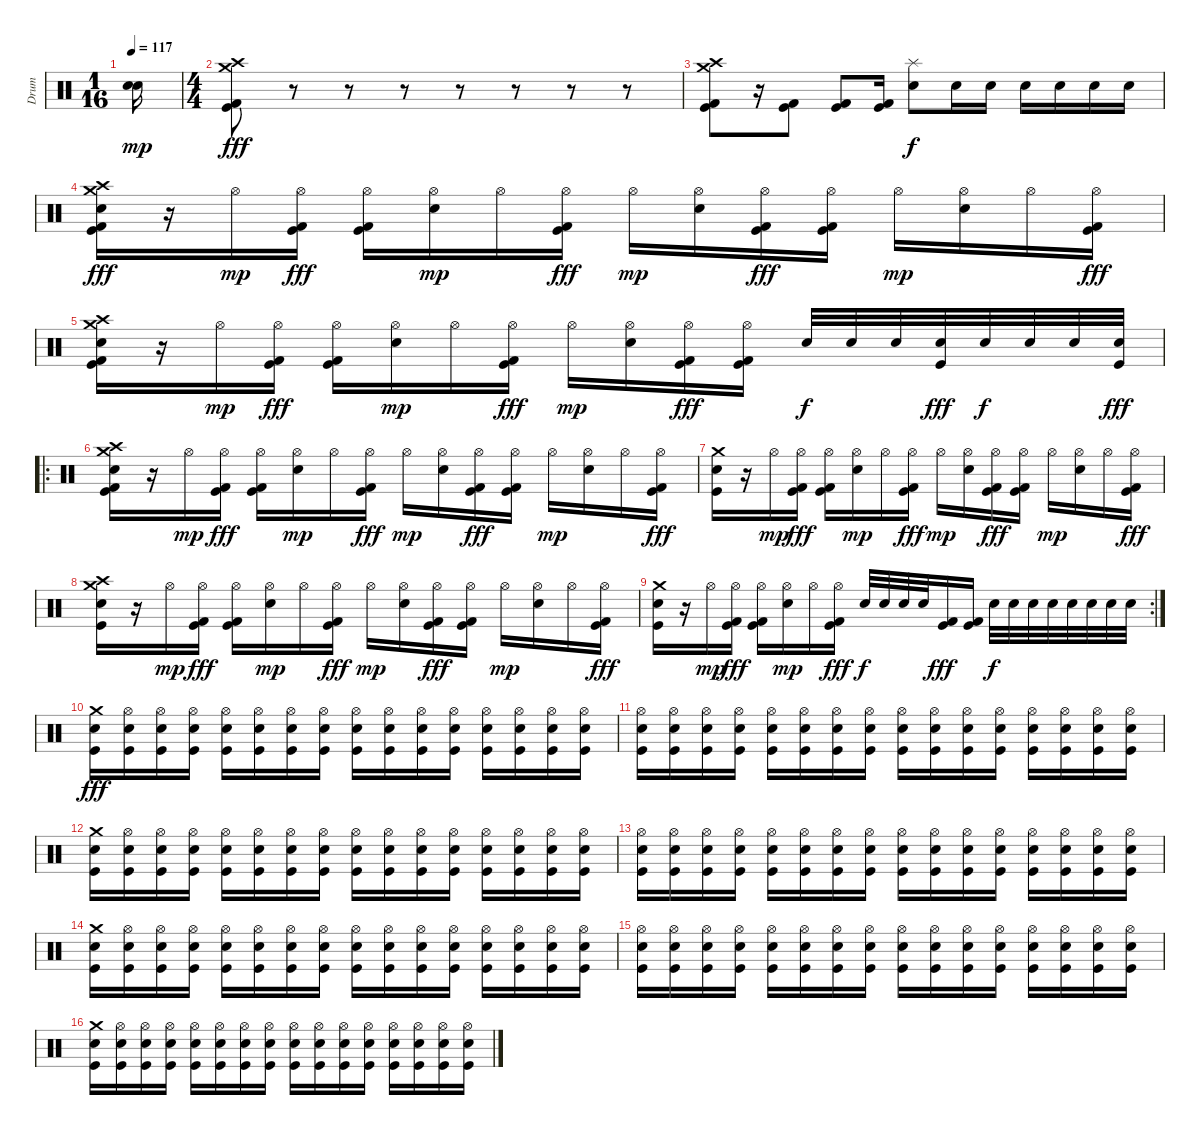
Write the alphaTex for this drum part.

\track ("Drum" "Drum") {instrument percussion}
\staff {score}
\articulation defaults
\ts (1 16)
\tempo 117
\clef neutral
\ks c
("Electric Snare (hit)" "Snare (hit) 2").16{dy mp} |
\ts (4 4)
("Crash medium (hit)" "Crash high (hit)" "Kick (hit) 2" "Kick (hit)").8{dy fff} r.8 r.8 r.8 r.8 r.8 r.8 r.8 |
("Crash medium (hit)" "Crash high (hit)" "Kick (hit) 2" "Kick (hit)").8 r.16 ("Kick (hit) 2" "Kick (hit)").8 ("Kick (hit) 2" "Kick (hit)").8 ("Kick (hit) 2" "Kick (hit)").16 ("Splash (hit)" "Electric Snare (hit)").8{dy f} "Electric Snare (hit)".16 "Electric Snare (hit)".16 "Electric Snare (hit)".16 "Electric Snare (hit)".16 "Electric Snare (hit)".16 "Electric Snare (hit)".16 |
("Crash medium (hit)" "Crash high (hit)" "Electric Snare (hit)" "Kick (hit) 2" "Kick (hit)").16{dy fff} r.16 "Hi-Hat (open)".16{dy mp} ("Hi-Hat (open)" "Kick (hit) 2" "Kick (hit)").16{dy fff} ("Hi-Hat (open)" "Kick (hit) 2" "Kick (hit)").16 ("Hi-Hat (open)" "Electric Snare (hit)").16{dy mp} "Hi-Hat (open)".16 ("Hi-Hat (open)" "Kick (hit) 2" "Kick (hit)").16{dy fff} "Hi-Hat (open)".16{dy mp} ("Hi-Hat (open)" "Electric Snare (hit)").16 ("Hi-Hat (open)" "Kick (hit) 2" "Kick (hit)").16{dy fff} ("Hi-Hat (open)" "Kick (hit) 2" "Kick (hit)").16 "Hi-Hat (open)".16{dy mp} ("Hi-Hat (open)" "Electric Snare (hit)").16 "Hi-Hat (open)".16 ("Hi-Hat (open)" "Kick (hit) 2" "Kick (hit)").16{dy fff} |
("Crash medium (hit)" "Crash high (hit)" "Electric Snare (hit)" "Kick (hit) 2" "Kick (hit)").16 r.16 "Hi-Hat (open)".16{dy mp} ("Hi-Hat (open)" "Kick (hit) 2" "Kick (hit)").16{dy fff} ("Hi-Hat (open)" "Kick (hit) 2" "Kick (hit)").16 ("Hi-Hat (open)" "Electric Snare (hit)").16{dy mp} "Hi-Hat (open)".16 ("Hi-Hat (open)" "Kick (hit) 2" "Kick (hit)").16{dy fff} "Hi-Hat (open)".16{dy mp} ("Hi-Hat (open)" "Electric Snare (hit)").16 ("Hi-Hat (open)" "Kick (hit) 2" "Kick (hit)").16{dy fff} ("Hi-Hat (open)" "Kick (hit) 2" "Kick (hit)").16 "Electric Snare (hit)".32{dy f} "Electric Snare (hit)".32 "Electric Snare (hit)".32 ("Electric Snare (hit)" "Kick (hit)").32{dy fff} "Electric Snare (hit)".32{dy f} "Electric Snare (hit)".32 "Electric Snare (hit)".32 ("Electric Snare (hit)" "Kick (hit)").32{dy fff} |
\ro
("Crash medium (hit)" "Crash high (hit)" "Electric Snare (hit)" "Kick (hit) 2" "Kick (hit)").16 r.16 "Hi-Hat (open)".16{dy mp} ("Hi-Hat (open)" "Kick (hit) 2" "Kick (hit)").16{dy fff} ("Hi-Hat (open)" "Kick (hit) 2" "Kick (hit)").16 ("Hi-Hat (open)" "Electric Snare (hit)").16{dy mp} "Hi-Hat (open)".16 ("Hi-Hat (open)" "Kick (hit) 2" "Kick (hit)").16{dy fff} "Hi-Hat (open)".16{dy mp} ("Hi-Hat (open)" "Electric Snare (hit)").16 ("Hi-Hat (open)" "Kick (hit) 2" "Kick (hit)").16{dy fff} ("Hi-Hat (open)" "Kick (hit) 2" "Kick (hit)").16 "Hi-Hat (open)".16{dy mp} ("Hi-Hat (open)" "Electric Snare (hit)").16 "Hi-Hat (open)".16 ("Hi-Hat (open)" "Kick (hit) 2" "Kick (hit)").16{dy fff} |
("Crash medium (hit)" "Electric Snare (hit)" "Kick (hit)").16 r.16 "Hi-Hat (open)".16{dy mp} ("Hi-Hat (open)" "Kick (hit) 2" "Kick (hit)").16{dy fff} ("Hi-Hat (open)" "Kick (hit) 2" "Kick (hit)").16 ("Hi-Hat (open)" "Electric Snare (hit)").16{dy mp} "Hi-Hat (open)".16 ("Hi-Hat (open)" "Kick (hit) 2" "Kick (hit)").16{dy fff} "Hi-Hat (open)".16{dy mp} ("Hi-Hat (open)" "Electric Snare (hit)").16 ("Hi-Hat (open)" "Kick (hit) 2" "Kick (hit)").16{dy fff} ("Hi-Hat (open)" "Kick (hit) 2" "Kick (hit)").16 "Hi-Hat (open)".16{dy mp} ("Hi-Hat (open)" "Electric Snare (hit)").16 "Hi-Hat (open)".16 ("Hi-Hat (open)" "Kick (hit) 2" "Kick (hit)").16{dy fff} |
("Crash medium (hit)" "Crash high (hit)" "Electric Snare (hit)" "Kick (hit)").16 r.16 "Hi-Hat (open)".16{dy mp} ("Hi-Hat (open)" "Kick (hit) 2" "Kick (hit)").16{dy fff} ("Hi-Hat (open)" "Kick (hit) 2" "Kick (hit)").16 ("Hi-Hat (open)" "Electric Snare (hit)").16{dy mp} "Hi-Hat (open)".16 ("Hi-Hat (open)" "Kick (hit) 2" "Kick (hit)").16{dy fff} "Hi-Hat (open)".16{dy mp} ("Hi-Hat (open)" "Electric Snare (hit)").16 ("Hi-Hat (open)" "Kick (hit) 2" "Kick (hit)").16{dy fff} ("Hi-Hat (open)" "Kick (hit) 2" "Kick (hit)").16 "Hi-Hat (open)".16{dy mp} ("Hi-Hat (open)" "Electric Snare (hit)").16 "Hi-Hat (open)".16 ("Hi-Hat (open)" "Kick (hit) 2" "Kick (hit)").16{dy fff} |
\rc 2
("Crash medium (hit)" "Electric Snare (hit)" "Kick (hit)").16 r.16 "Hi-Hat (open)".16{dy mp} ("Hi-Hat (open)" "Kick (hit) 2" "Kick (hit)").16{dy fff} ("Hi-Hat (open)" "Kick (hit) 2" "Kick (hit)").16 ("Hi-Hat (open)" "Electric Snare (hit)").16{dy mp} "Hi-Hat (open)".16 ("Hi-Hat (open)" "Kick (hit) 2" "Kick (hit)").16{dy fff} "Electric Snare (hit)".32{dy f} "Electric Snare (hit)".32 "Electric Snare (hit)".32 "Electric Snare (hit)".32 ("Kick (hit) 2" "Kick (hit)").16{dy fff} ("Kick (hit) 2" "Kick (hit)").16 "Electric Snare (hit)".32{dy f} "Electric Snare (hit)".32 "Electric Snare (hit)".32 "Electric Snare (hit)".32 "Electric Snare (hit)".32 "Electric Snare (hit)".32 "Electric Snare (hit)".32 "Electric Snare (hit)".32 |
("Crash medium (hit)" "Electric Snare (hit)" "Kick (hit)").16{dy fff} ("Hi-Hat (open)" "Electric Snare (hit)" "Kick (hit)").16 ("Hi-Hat (open)" "Electric Snare (hit)" "Kick (hit)").16 ("Hi-Hat (open)" "Electric Snare (hit)" "Kick (hit)").16 ("Hi-Hat (open)" "Electric Snare (hit)" "Kick (hit)").16 ("Hi-Hat (open)" "Electric Snare (hit)" "Kick (hit)").16 ("Hi-Hat (open)" "Electric Snare (hit)" "Kick (hit)").16 ("Hi-Hat (open)" "Electric Snare (hit)" "Kick (hit)").16 ("Hi-Hat (open)" "Electric Snare (hit)" "Kick (hit)").16 ("Hi-Hat (open)" "Electric Snare (hit)" "Kick (hit)").16 ("Hi-Hat (open)" "Electric Snare (hit)" "Kick (hit)").16 ("Hi-Hat (open)" "Electric Snare (hit)" "Kick (hit)").16 ("Hi-Hat (open)" "Electric Snare (hit)" "Kick (hit)").16 ("Hi-Hat (open)" "Electric Snare (hit)" "Kick (hit)").16 ("Hi-Hat (open)" "Electric Snare (hit)" "Kick (hit)").16 ("Hi-Hat (open)" "Electric Snare (hit)" "Kick (hit)").16 |
("Hi-Hat (open)" "Electric Snare (hit)" "Kick (hit)").16 ("Hi-Hat (open)" "Electric Snare (hit)" "Kick (hit)").16 ("Hi-Hat (open)" "Electric Snare (hit)" "Kick (hit)").16 ("Hi-Hat (open)" "Electric Snare (hit)" "Kick (hit)").16 ("Hi-Hat (open)" "Electric Snare (hit)" "Kick (hit)").16 ("Hi-Hat (open)" "Electric Snare (hit)" "Kick (hit)").16 ("Hi-Hat (open)" "Electric Snare (hit)" "Kick (hit)").16 ("Hi-Hat (open)" "Electric Snare (hit)" "Kick (hit)").16 ("Hi-Hat (open)" "Electric Snare (hit)" "Kick (hit)").16 ("Hi-Hat (open)" "Electric Snare (hit)" "Kick (hit)").16 ("Hi-Hat (open)" "Electric Snare (hit)" "Kick (hit)").16 ("Hi-Hat (open)" "Electric Snare (hit)" "Kick (hit)").16 ("Hi-Hat (open)" "Electric Snare (hit)" "Kick (hit)").16 ("Hi-Hat (open)" "Electric Snare (hit)" "Kick (hit)").16 ("Hi-Hat (open)" "Electric Snare (hit)" "Kick (hit)").16 ("Hi-Hat (open)" "Electric Snare (hit)" "Kick (hit)").16 |
("Crash medium (hit)" "Electric Snare (hit)" "Kick (hit)").16 ("Hi-Hat (open)" "Electric Snare (hit)" "Kick (hit)").16 ("Hi-Hat (open)" "Electric Snare (hit)" "Kick (hit)").16 ("Hi-Hat (open)" "Electric Snare (hit)" "Kick (hit)").16 ("Hi-Hat (open)" "Electric Snare (hit)" "Kick (hit)").16 ("Hi-Hat (open)" "Electric Snare (hit)" "Kick (hit)").16 ("Hi-Hat (open)" "Electric Snare (hit)" "Kick (hit)").16 ("Hi-Hat (open)" "Electric Snare (hit)" "Kick (hit)").16 ("Hi-Hat (open)" "Electric Snare (hit)" "Kick (hit)").16 ("Hi-Hat (open)" "Electric Snare (hit)" "Kick (hit)").16 ("Hi-Hat (open)" "Electric Snare (hit)" "Kick (hit)").16 ("Hi-Hat (open)" "Electric Snare (hit)" "Kick (hit)").16 ("Hi-Hat (open)" "Electric Snare (hit)" "Kick (hit)").16 ("Hi-Hat (open)" "Electric Snare (hit)" "Kick (hit)").16 ("Hi-Hat (open)" "Electric Snare (hit)" "Kick (hit)").16 ("Hi-Hat (open)" "Electric Snare (hit)" "Kick (hit)").16 |
("Hi-Hat (open)" "Electric Snare (hit)" "Kick (hit)").16 ("Hi-Hat (open)" "Electric Snare (hit)" "Kick (hit)").16 ("Hi-Hat (open)" "Electric Snare (hit)" "Kick (hit)").16 ("Hi-Hat (open)" "Electric Snare (hit)" "Kick (hit)").16 ("Hi-Hat (open)" "Electric Snare (hit)" "Kick (hit)").16 ("Hi-Hat (open)" "Electric Snare (hit)" "Kick (hit)").16 ("Hi-Hat (open)" "Electric Snare (hit)" "Kick (hit)").16 ("Hi-Hat (open)" "Electric Snare (hit)" "Kick (hit)").16 ("Hi-Hat (open)" "Electric Snare (hit)" "Kick (hit)").16 ("Hi-Hat (open)" "Electric Snare (hit)" "Kick (hit)").16 ("Hi-Hat (open)" "Electric Snare (hit)" "Kick (hit)").16 ("Hi-Hat (open)" "Electric Snare (hit)" "Kick (hit)").16 ("Hi-Hat (open)" "Electric Snare (hit)" "Kick (hit)").16 ("Hi-Hat (open)" "Electric Snare (hit)" "Kick (hit)").16 ("Hi-Hat (open)" "Electric Snare (hit)" "Kick (hit)").16 ("Hi-Hat (open)" "Electric Snare (hit)" "Kick (hit)").16 |
("Crash medium (hit)" "Electric Snare (hit)" "Kick (hit)").16 ("Hi-Hat (open)" "Electric Snare (hit)" "Kick (hit)").16 ("Hi-Hat (open)" "Electric Snare (hit)" "Kick (hit)").16 ("Hi-Hat (open)" "Electric Snare (hit)" "Kick (hit)").16 ("Hi-Hat (open)" "Electric Snare (hit)" "Kick (hit)").16 ("Hi-Hat (open)" "Electric Snare (hit)" "Kick (hit)").16 ("Hi-Hat (open)" "Electric Snare (hit)" "Kick (hit)").16 ("Hi-Hat (open)" "Electric Snare (hit)" "Kick (hit)").16 ("Hi-Hat (open)" "Electric Snare (hit)" "Kick (hit)").16 ("Hi-Hat (open)" "Electric Snare (hit)" "Kick (hit)").16 ("Hi-Hat (open)" "Electric Snare (hit)" "Kick (hit)").16 ("Hi-Hat (open)" "Electric Snare (hit)" "Kick (hit)").16 ("Hi-Hat (open)" "Electric Snare (hit)" "Kick (hit)").16 ("Hi-Hat (open)" "Electric Snare (hit)" "Kick (hit)").16 ("Hi-Hat (open)" "Electric Snare (hit)" "Kick (hit)").16 ("Hi-Hat (open)" "Electric Snare (hit)" "Kick (hit)").16 |
("Hi-Hat (open)" "Electric Snare (hit)" "Kick (hit)").16 ("Hi-Hat (open)" "Electric Snare (hit)" "Kick (hit)").16 ("Hi-Hat (open)" "Electric Snare (hit)" "Kick (hit)").16 ("Hi-Hat (open)" "Electric Snare (hit)" "Kick (hit)").16 ("Hi-Hat (open)" "Electric Snare (hit)" "Kick (hit)").16 ("Hi-Hat (open)" "Electric Snare (hit)" "Kick (hit)").16 ("Hi-Hat (open)" "Electric Snare (hit)" "Kick (hit)").16 ("Hi-Hat (open)" "Electric Snare (hit)" "Kick (hit)").16 ("Hi-Hat (open)" "Electric Snare (hit)" "Kick (hit)").16 ("Hi-Hat (open)" "Electric Snare (hit)" "Kick (hit)").16 ("Hi-Hat (open)" "Electric Snare (hit)" "Kick (hit)").16 ("Hi-Hat (open)" "Electric Snare (hit)" "Kick (hit)").16 ("Hi-Hat (open)" "Electric Snare (hit)" "Kick (hit)").16 ("Hi-Hat (open)" "Electric Snare (hit)" "Kick (hit)").16 ("Hi-Hat (open)" "Electric Snare (hit)" "Kick (hit)").16 ("Hi-Hat (open)" "Electric Snare (hit)" "Kick (hit)").16 |
("Crash medium (hit)" "Electric Snare (hit)" "Kick (hit)").16 ("Hi-Hat (open)" "Electric Snare (hit)" "Kick (hit)").16 ("Hi-Hat (open)" "Electric Snare (hit)" "Kick (hit)").16 ("Hi-Hat (open)" "Electric Snare (hit)" "Kick (hit)").16 ("Hi-Hat (open)" "Electric Snare (hit)" "Kick (hit)").16 ("Hi-Hat (open)" "Electric Snare (hit)" "Kick (hit)").16 ("Hi-Hat (open)" "Electric Snare (hit)" "Kick (hit)").16 ("Hi-Hat (open)" "Electric Snare (hit)" "Kick (hit)").16 ("Hi-Hat (open)" "Electric Snare (hit)" "Kick (hit)").16 ("Hi-Hat (open)" "Electric Snare (hit)" "Kick (hit)").16 ("Hi-Hat (open)" "Electric Snare (hit)" "Kick (hit)").16 ("Hi-Hat (open)" "Electric Snare (hit)" "Kick (hit)").16 ("Hi-Hat (open)" "Electric Snare (hit)" "Kick (hit)").16 ("Hi-Hat (open)" "Electric Snare (hit)" "Kick (hit)").16 ("Hi-Hat (open)" "Electric Snare (hit)" "Kick (hit)").16 ("Hi-Hat (open)" "Electric Snare (hit)" "Kick (hit)").16
